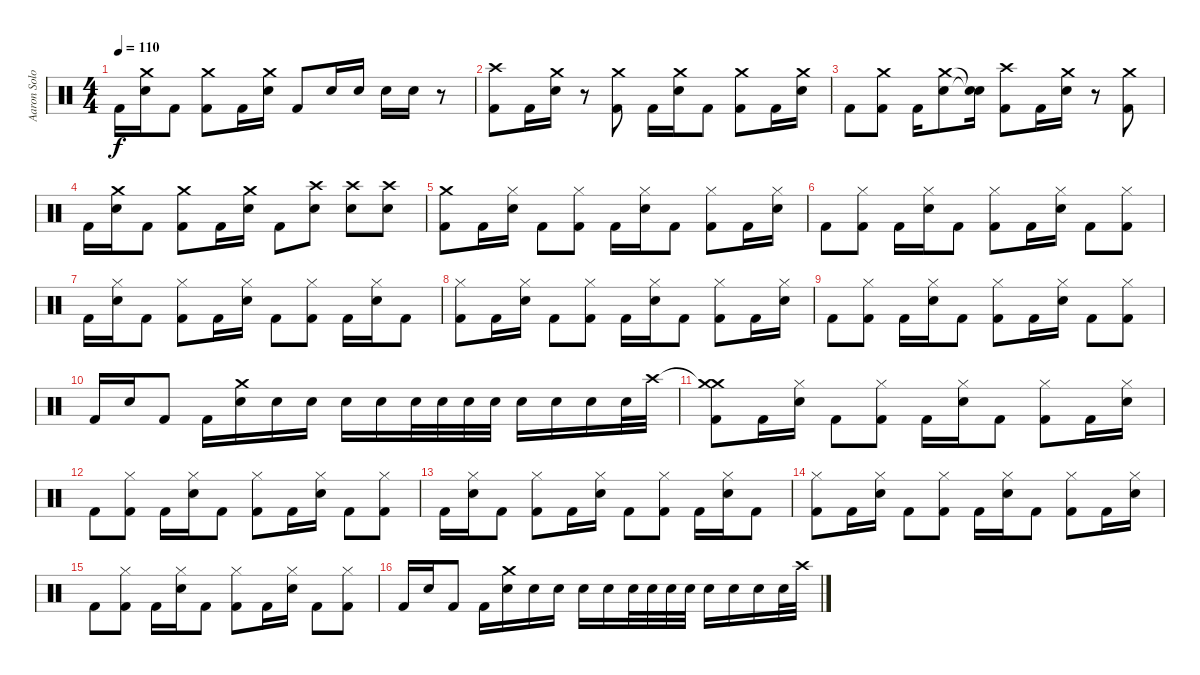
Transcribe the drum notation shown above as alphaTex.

\track ("Aaron Solowoniuk - Drum" "Aaron Solo") {instrument percussion}
\staff {score}
\articulation defaults
\ts (4 4)
\tempo 110
\clef neutral
\ks c "Kick (hit) 2".16{dy f}
("Crash medium (hit)" "Electric Snare (hit)").16 "Kick (hit) 2".8 ("Crash medium (hit)" "Kick (hit) 2").8 "Kick (hit) 2".16 ("Crash medium (hit)" "Electric Snare (hit)").16 "Kick (hit) 2".8 "Electric Snare (hit)".16 "Electric Snare (hit)".16 "Electric Snare (hit)".16 "Electric Snare (hit)".16 r.8 |
("Crash high (hit)" "Kick (hit) 2").8 "Kick (hit) 2".16 ("Crash medium (hit)" "Electric Snare (hit)").16 r.8 ("Crash medium (hit)" "Kick (hit) 2").8 "Kick (hit) 2".16 ("Crash medium (hit)" "Electric Snare (hit)").16 "Kick (hit) 2".8 ("Crash medium (hit)" "Kick (hit) 2").8 "Kick (hit) 2".16 ("Crash medium (hit)" "Electric Snare (hit)").16 |
"Kick (hit) 2".8 ("Crash medium (hit)" "Kick (hit) 2").8 "Kick (hit) 2".16 ("Crash medium (hit)" "Electric Snare (hit)").8 ("Snare (hit)"{t} "Snare (hit)"{t}).16 ("Crash high (hit)" "Kick (hit) 2").8 "Kick (hit) 2".16 ("Crash medium (hit)" "Electric Snare (hit)").16 r.8 ("Crash medium (hit)" "Kick (hit) 2").8 |
"Kick (hit) 2".16 ("Crash medium (hit)" "Electric Snare (hit)").16 "Kick (hit) 2".8 ("Crash medium (hit)" "Kick (hit) 2").8 "Kick (hit) 2".16 ("Crash medium (hit)" "Electric Snare (hit)").16 "Kick (hit) 2".8 ("Crash high (hit)" "Electric Snare (hit)").8 ("Crash high (hit)" "Electric Snare (hit)").8 ("Crash high (hit)" "Electric Snare (hit)").8 |
("Crash medium (hit)" "Kick (hit) 2").8 "Kick (hit) 2".16 ("Hi-Hat (closed)" "Electric Snare (hit)").16 "Kick (hit) 2".8 ("Hi-Hat (closed)" "Kick (hit) 2").8 "Kick (hit) 2".16 ("Hi-Hat (closed)" "Electric Snare (hit)").16 "Kick (hit) 2".8 ("Hi-Hat (closed)" "Kick (hit) 2").8 "Kick (hit) 2".16 ("Hi-Hat (closed)" "Electric Snare (hit)").16 |
"Kick (hit) 2".8 ("Hi-Hat (closed)" "Kick (hit) 2").8 "Kick (hit) 2".16 ("Hi-Hat (closed)" "Electric Snare (hit)").16 "Kick (hit) 2".8 ("Hi-Hat (closed)" "Kick (hit) 2").8 "Kick (hit) 2".16 ("Hi-Hat (closed)" "Electric Snare (hit)").16 "Kick (hit) 2".8 ("Hi-Hat (closed)" "Kick (hit) 2").8 |
"Kick (hit) 2".16 ("Hi-Hat (closed)" "Electric Snare (hit)").16 "Kick (hit) 2".8 ("Hi-Hat (closed)" "Kick (hit) 2").8 "Kick (hit) 2".16 ("Hi-Hat (closed)" "Electric Snare (hit)").16 "Kick (hit) 2".8 ("Hi-Hat (closed)" "Kick (hit) 2").8 "Kick (hit) 2".16 ("Hi-Hat (closed)" "Electric Snare (hit)").16 "Kick (hit) 2".8 |
("Hi-Hat (closed)" "Kick (hit) 2").8 "Kick (hit) 2".16 ("Hi-Hat (closed)" "Electric Snare (hit)").16 "Kick (hit) 2".8 ("Hi-Hat (closed)" "Kick (hit) 2").8 "Kick (hit) 2".16 ("Hi-Hat (closed)" "Electric Snare (hit)").16 "Kick (hit) 2".8 ("Hi-Hat (closed)" "Kick (hit) 2").8 "Kick (hit) 2".16 ("Hi-Hat (closed)" "Electric Snare (hit)").16 |
"Kick (hit) 2".8 ("Hi-Hat (closed)" "Kick (hit) 2").8 "Kick (hit) 2".16 ("Hi-Hat (closed)" "Electric Snare (hit)").16 "Kick (hit) 2".8 ("Hi-Hat (closed)" "Kick (hit) 2").8 "Kick (hit) 2".16 ("Hi-Hat (closed)" "Electric Snare (hit)").16 "Kick (hit) 2".8 ("Hi-Hat (closed)" "Kick (hit) 2").8 |
"Kick (hit) 2".16 "Electric Snare (hit)".16 "Kick (hit) 2".8 "Kick (hit) 2".16 ("Crash medium (hit)" "Electric Snare (hit)").16 "Electric Snare (hit)".16 "Electric Snare (hit)".16 "Electric Snare (hit)".16 "Electric Snare (hit)".16 "Electric Snare (hit)".32 "Electric Snare (hit)".32 "Electric Snare (hit)".32 "Electric Snare (hit)".32 "Electric Snare (hit)".16 "Electric Snare (hit)".16 "Electric Snare (hit)".16 "Electric Snare (hit)".32 "Crash high (hit)".32 |
("Crash medium (hit)"{t} "Crash medium (hit)" "Kick (hit) 2").8 "Kick (hit) 2".16 ("Hi-Hat (closed)" "Electric Snare (hit)").16 "Kick (hit) 2".8 ("Hi-Hat (closed)" "Kick (hit) 2").8 "Kick (hit) 2".16 ("Hi-Hat (closed)" "Electric Snare (hit)").16 "Kick (hit) 2".8 ("Hi-Hat (closed)" "Kick (hit) 2").8 "Kick (hit) 2".16 ("Hi-Hat (closed)" "Electric Snare (hit)").16 |
"Kick (hit) 2".8 ("Hi-Hat (closed)" "Kick (hit) 2").8 "Kick (hit) 2".16 ("Hi-Hat (closed)" "Electric Snare (hit)").16 "Kick (hit) 2".8 ("Hi-Hat (closed)" "Kick (hit) 2").8 "Kick (hit) 2".16 ("Hi-Hat (closed)" "Electric Snare (hit)").16 "Kick (hit) 2".8 ("Hi-Hat (closed)" "Kick (hit) 2").8 |
"Kick (hit) 2".16 ("Hi-Hat (closed)" "Electric Snare (hit)").16 "Kick (hit) 2".8 ("Hi-Hat (closed)" "Kick (hit) 2").8 "Kick (hit) 2".16 ("Hi-Hat (closed)" "Electric Snare (hit)").16 "Kick (hit) 2".8 ("Hi-Hat (closed)" "Kick (hit) 2").8 "Kick (hit) 2".16 ("Hi-Hat (closed)" "Electric Snare (hit)").16 "Kick (hit) 2".8 |
("Hi-Hat (closed)" "Kick (hit) 2").8 "Kick (hit) 2".16 ("Hi-Hat (closed)" "Electric Snare (hit)").16 "Kick (hit) 2".8 ("Hi-Hat (closed)" "Kick (hit) 2").8 "Kick (hit) 2".16 ("Hi-Hat (closed)" "Electric Snare (hit)").16 "Kick (hit) 2".8 ("Hi-Hat (closed)" "Kick (hit) 2").8 "Kick (hit) 2".16 ("Hi-Hat (closed)" "Electric Snare (hit)").16 |
"Kick (hit) 2".8 ("Hi-Hat (closed)" "Kick (hit) 2").8 "Kick (hit) 2".16 ("Hi-Hat (closed)" "Electric Snare (hit)").16 "Kick (hit) 2".8 ("Hi-Hat (closed)" "Kick (hit) 2").8 "Kick (hit) 2".16 ("Hi-Hat (closed)" "Electric Snare (hit)").16 "Kick (hit) 2".8 ("Hi-Hat (closed)" "Kick (hit) 2").8 |
"Kick (hit) 2".16 "Electric Snare (hit)".16 "Kick (hit) 2".8 "Kick (hit) 2".16 ("Crash medium (hit)" "Electric Snare (hit)").16 "Electric Snare (hit)".16 "Electric Snare (hit)".16 "Electric Snare (hit)".16 "Electric Snare (hit)".16 "Electric Snare (hit)".32 "Electric Snare (hit)".32 "Electric Snare (hit)".32 "Electric Snare (hit)".32 "Electric Snare (hit)".16 "Electric Snare (hit)".16 "Electric Snare (hit)".16 "Electric Snare (hit)".32 "Crash high (hit)".32
